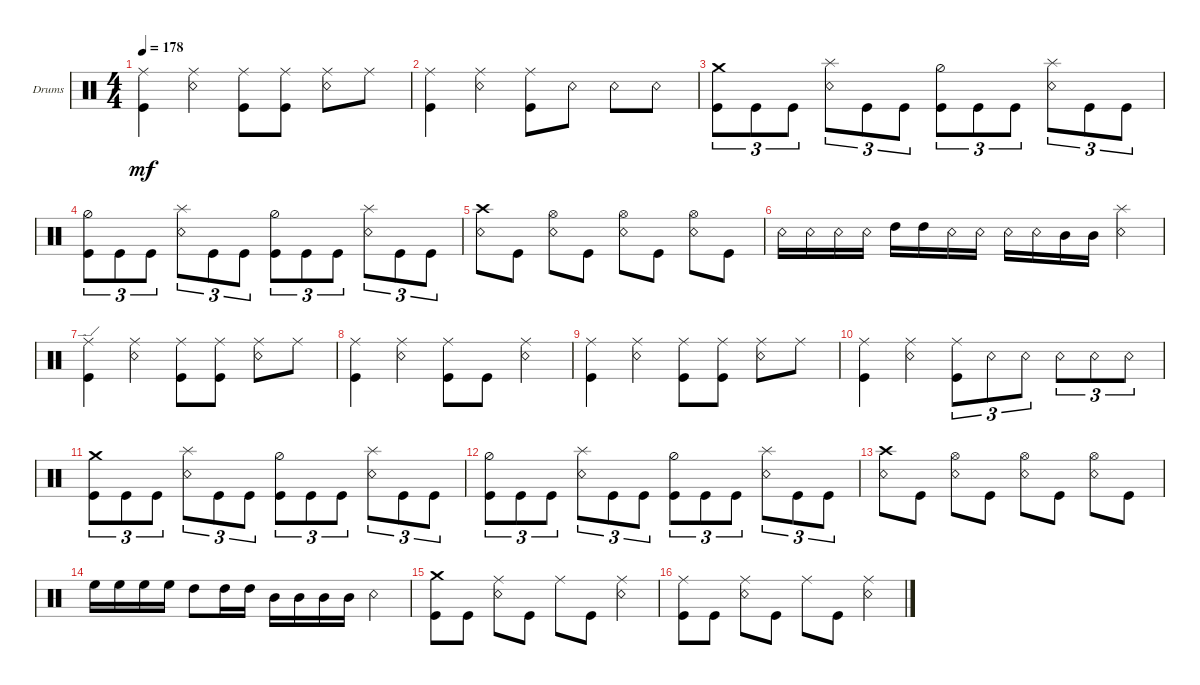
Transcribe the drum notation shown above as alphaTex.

\defaultSystemsLayout 4
\bracketExtendMode groupsimilarinstruments
\firstSystemTrackNameOrientation horizontal
\otherSystemsTrackNameOrientation horizontal
\track ("Drumkit" "Drums") {instrument percussion}
\staff {score}
\articulation defaults
\ts (4 4)
\tempo 178
\clef neutral
\ks c
("Kick (hit)" "Ride (middle)").4{dy mf} ("Ride (middle)" "Snare (rim shot)").4 ("Ride (middle)" "Kick (hit)").8 ("Kick (hit)" "Ride (middle)").8 ("Ride (middle)" "Snare (rim shot)").8 "Ride (middle)".8 |
("Kick (hit)" "Ride (middle)").4 ("Ride (middle)" "Snare (rim shot)").4 ("Ride (middle)" "Kick (hit)").8 "Snare (rim shot)".8 "Snare (rim shot)".8 "Snare (rim shot)".8 |
("Kick (hit)" "Crash medium (hit)").8{tu (3 2)} "Kick (hit)".8{tu (3 2)} "Kick (hit)".8{tu (3 2)} ("Snare (rim shot)" "Splash (hit)").8{tu (3 2)} "Kick (hit)".8{tu (3 2)} "Kick (hit)".8{tu (3 2)} ("Kick (hit)" "Hi-Hat (half)").8{tu (3 2)} "Kick (hit)".8{tu (3 2)} "Kick (hit)".8{tu (3 2)} ("Snare (rim shot)" "Splash (hit)").8{tu (3 2)} "Kick (hit)".8{tu (3 2)} "Kick (hit)".8{tu (3 2)} |
("Kick (hit)" "Hi-Hat (half)").8{tu (3 2)} "Kick (hit)".8{tu (3 2)} "Kick (hit)".8{tu (3 2)} ("Snare (rim shot)" "Splash (hit)").8{tu (3 2)} "Kick (hit)".8{tu (3 2)} "Kick (hit)".8{tu (3 2)} ("Kick (hit)" "Hi-Hat (half)").8{tu (3 2)} "Kick (hit)".8{tu (3 2)} "Kick (hit)".8{tu (3 2)} ("Snare (rim shot)" "Splash (hit)").8{tu (3 2)} "Kick (hit)".8{tu (3 2)} "Kick (hit)".8{tu (3 2)} |
("Crash high (hit)" "Snare (rim shot)").8 "Kick (hit)".8 ("Snare (rim shot)" "Hi-Hat (open)").8 "Kick (hit)".8 ("Snare (rim shot)" "Hi-Hat (open)").8 "Kick (hit)".8 ("Snare (rim shot)" "Hi-Hat (open)").8 "Kick (hit)".8 |
"Snare (rim shot)".16 "Snare (rim shot)".16 "Snare (rim shot)".16 "Snare (rim shot)".16 "High Tom (hit)".16 "High Tom (hit)".16 "Snare (rim shot)".16 "Snare (rim shot)".16 "Snare (rim shot)".16 "Snare (rim shot)".16 "Mid Tom (hit)".16 "Mid Tom (hit)".16 ("Snare (rim shot)" "Splash (hit)").4 |
("Kick (hit)" "Ride (edge)").4 ("Ride (middle)" "Snare (rim shot)").4 ("Ride (middle)" "Kick (hit)").8 ("Kick (hit)" "Ride (middle)").8 ("Ride (middle)" "Snare (rim shot)").8 "Ride (middle)".8 |
("Kick (hit)" "Ride (middle)").4 ("Ride (middle)" "Snare (rim shot)").4 ("Ride (middle)" "Kick (hit)").8 "Kick (hit)".8 ("Ride (middle)" "Snare (rim shot)").4 |
("Kick (hit)" "Ride (middle)").4 ("Ride (middle)" "Snare (rim shot)").4 ("Ride (middle)" "Kick (hit)").8 ("Kick (hit)" "Ride (middle)").8 ("Ride (middle)" "Snare (rim shot)").8 "Ride (middle)".8 |
("Kick (hit)" "Ride (middle)").4 ("Ride (middle)" "Snare (rim shot)").4 ("Ride (middle)" "Kick (hit)").8{tu (3 2)} "Snare (rim shot)".8{tu (3 2)} "Snare (rim shot)".8{tu (3 2)} "Snare (rim shot)".8{tu (3 2)} "Snare (rim shot)".8{tu (3 2)} "Snare (rim shot)".8{tu (3 2)} |
("Kick (hit)" "Crash medium (hit)").8{tu (3 2)} "Kick (hit)".8{tu (3 2)} "Kick (hit)".8{tu (3 2)} ("Snare (rim shot)" "Splash (hit)").8{tu (3 2)} "Kick (hit)".8{tu (3 2)} "Kick (hit)".8{tu (3 2)} ("Kick (hit)" "Hi-Hat (half)").8{tu (3 2)} "Kick (hit)".8{tu (3 2)} "Kick (hit)".8{tu (3 2)} ("Snare (rim shot)" "Splash (hit)").8{tu (3 2)} "Kick (hit)".8{tu (3 2)} "Kick (hit)".8{tu (3 2)} |
("Kick (hit)" "Hi-Hat (half)").8{tu (3 2)} "Kick (hit)".8{tu (3 2)} "Kick (hit)".8{tu (3 2)} ("Snare (rim shot)" "Splash (hit)").8{tu (3 2)} "Kick (hit)".8{tu (3 2)} "Kick (hit)".8{tu (3 2)} ("Kick (hit)" "Hi-Hat (half)").8{tu (3 2)} "Kick (hit)".8{tu (3 2)} "Kick (hit)".8{tu (3 2)} ("Snare (rim shot)" "Splash (hit)").8{tu (3 2)} "Kick (hit)".8{tu (3 2)} "Kick (hit)".8{tu (3 2)} |
("Crash high (hit)" "Snare (rim shot)").8 "Kick (hit)".8 ("Snare (rim shot)" "Hi-Hat (open)").8 "Kick (hit)".8 ("Snare (rim shot)" "Hi-Hat (open)").8 "Kick (hit)".8 ("Snare (rim shot)" "Hi-Hat (open)").8 "Kick (hit)".8 |
"High Floor Tom (hit)".16 "High Floor Tom (hit)".16 "High Floor Tom (hit)".16 "High Floor Tom (hit)".16 "High Tom (hit)".8 "High Tom (hit)".16 "High Tom (hit)".16 "Mid Tom (hit)".16 "Mid Tom (hit)".16 "Mid Tom (hit)".16 "Mid Tom (hit)".16 "Snare (rim shot)".4 |
("Kick (hit)" "Crash medium (hit)").8 "Kick (hit)".8 ("Snare (rim shot)" "Ride (middle)").8 "Kick (hit)".8 "Ride (middle)".8 "Kick (hit)".8 ("Snare (rim shot)" "Ride (middle)").4 |
("Kick (hit)" "Ride (middle)").8 "Kick (hit)".8 ("Snare (rim shot)" "Ride (middle)").8 "Kick (hit)".8 "Ride (middle)".8 "Kick (hit)".8 ("Snare (rim shot)" "Ride (middle)").4
